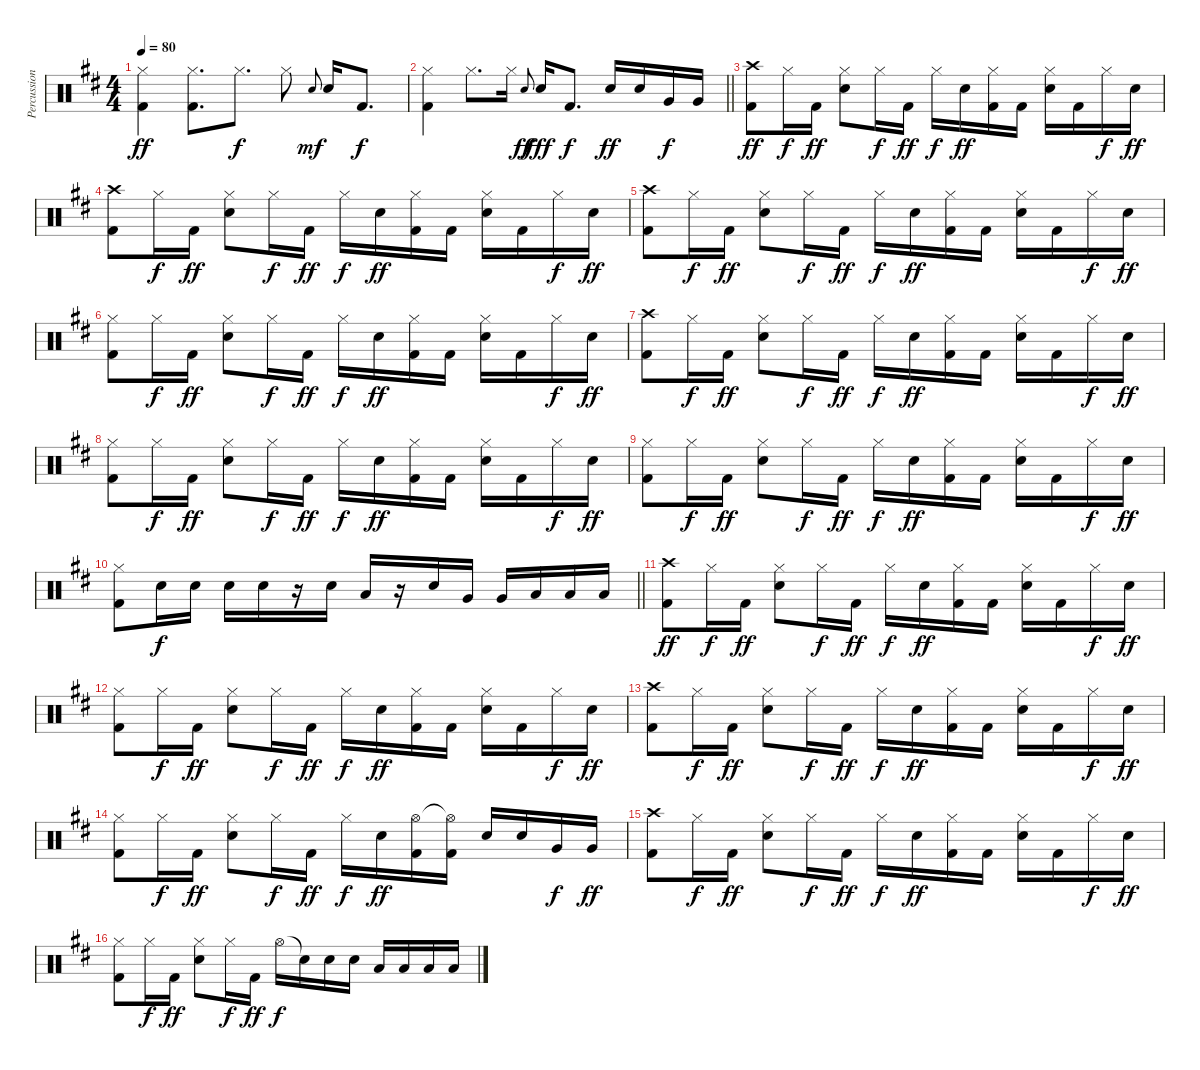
\track ("Percussion" "Percussion") {instrument percussion}
\staff {score}
\articulation defaults
\ts (4 4)
\tempo 80
\clef neutral
\ks bminor
("Hi-Hat (closed)" "Kick (hit) 2").4{dy ff} ("Hi-Hat (closed)" "Kick (hit) 2").8{d} "Hi-Hat (closed)".8{d dy f} "Hi-Hat (closed)".8 "Electric Snare (hit)".8{gr onbeat dy mf} "Electric Snare (hit)".16 "Kick (hit) 2".8{d dy f} |
\barLineRight lightlight
("Hi-Hat (closed)" "Kick (hit) 2").4 "Hi-Hat (closed)".8{d} "Hi-Hat (closed)".16 "Electric Snare (hit)".8{gr onbeat dy ff} "Electric Snare (hit)".16{dy fff} "Kick (hit) 2".8{d dy f} "Snare (hit) 2".16{dy ff} "Snare (hit) 2".16 "Very Low Tom (hit)".16{dy f} "Very Low Tom (hit)".16 |
("Crash high (hit)" "Kick (hit) 2").8{dy ff} "Hi-Hat (closed)".16{dy f} "Kick (hit) 2".16{dy ff} ("Hi-Hat (closed)" "Snare (hit) 2").8 "Hi-Hat (closed)".16{dy f} "Kick (hit) 2".16{dy ff} "Hi-Hat (closed)".16{dy f} "Snare (hit) 2".16{dy ff} ("Hi-Hat (closed)" "Kick (hit) 2").16 "Kick (hit) 2".16 ("Hi-Hat (closed)" "Snare (hit) 2").16 "Kick (hit) 2".16 "Hi-Hat (closed)".16{dy f} "Snare (hit) 2".16{dy ff} |
("Crash high (hit)" "Kick (hit) 2").8 "Hi-Hat (closed)".16{dy f} "Kick (hit) 2".16{dy ff} ("Hi-Hat (closed)" "Snare (hit) 2").8 "Hi-Hat (closed)".16{dy f} "Kick (hit) 2".16{dy ff} "Hi-Hat (closed)".16{dy f} "Snare (hit) 2".16{dy ff} ("Hi-Hat (closed)" "Kick (hit) 2").16 "Kick (hit) 2".16 ("Hi-Hat (closed)" "Snare (hit) 2").16 "Kick (hit) 2".16 "Hi-Hat (closed)".16{dy f} "Snare (hit) 2".16{dy ff} |
("Crash high (hit)" "Kick (hit) 2").8 "Hi-Hat (closed)".16{dy f} "Kick (hit) 2".16{dy ff} ("Hi-Hat (closed)" "Snare (hit) 2").8 "Hi-Hat (closed)".16{dy f} "Kick (hit) 2".16{dy ff} "Hi-Hat (closed)".16{dy f} "Snare (hit) 2".16{dy ff} ("Hi-Hat (closed)" "Kick (hit) 2").16 "Kick (hit) 2".16 ("Hi-Hat (closed)" "Snare (hit) 2").16 "Kick (hit) 2".16 "Hi-Hat (closed)".16{dy f} "Snare (hit) 2".16{dy ff} |
("Hi-Hat (closed)" "Kick (hit) 2").8 "Hi-Hat (closed)".16{dy f} "Kick (hit) 2".16{dy ff} ("Hi-Hat (closed)" "Snare (hit) 2").8 "Hi-Hat (closed)".16{dy f} "Kick (hit) 2".16{dy ff} "Hi-Hat (closed)".16{dy f} "Snare (hit) 2".16{dy ff} ("Hi-Hat (closed)" "Kick (hit) 2").16 "Kick (hit) 2".16 ("Hi-Hat (closed)" "Snare (hit) 2").16 "Kick (hit) 2".16 "Hi-Hat (closed)".16{dy f} "Snare (hit) 2".16{dy ff} |
("Crash high (hit)" "Kick (hit) 2").8 "Hi-Hat (closed)".16{dy f} "Kick (hit) 2".16{dy ff} ("Hi-Hat (closed)" "Snare (hit) 2").8 "Hi-Hat (closed)".16{dy f} "Kick (hit) 2".16{dy ff} "Hi-Hat (closed)".16{dy f} "Snare (hit) 2".16{dy ff} ("Hi-Hat (closed)" "Kick (hit) 2").16 "Kick (hit) 2".16 ("Hi-Hat (closed)" "Snare (hit) 2").16 "Kick (hit) 2".16 "Hi-Hat (closed)".16{dy f} "Snare (hit) 2".16{dy ff} |
("Hi-Hat (closed)" "Kick (hit) 2").8 "Hi-Hat (closed)".16{dy f} "Kick (hit) 2".16{dy ff} ("Hi-Hat (closed)" "Snare (hit) 2").8 "Hi-Hat (closed)".16{dy f} "Kick (hit) 2".16{dy ff} "Hi-Hat (closed)".16{dy f} "Snare (hit) 2".16{dy ff} ("Hi-Hat (closed)" "Kick (hit) 2").16 "Kick (hit) 2".16 ("Hi-Hat (closed)" "Snare (hit) 2").16 "Kick (hit) 2".16 "Hi-Hat (closed)".16{dy f} "Snare (hit) 2".16{dy ff} |
("Hi-Hat (closed)" "Kick (hit) 2").8 "Hi-Hat (closed)".16{dy f} "Kick (hit) 2".16{dy ff} ("Hi-Hat (closed)" "Snare (hit) 2").8 "Hi-Hat (closed)".16{dy f} "Kick (hit) 2".16{dy ff} "Hi-Hat (closed)".16{dy f} "Snare (hit) 2".16{dy ff} ("Hi-Hat (closed)" "Kick (hit) 2").16 "Kick (hit) 2".16 ("Hi-Hat (closed)" "Snare (hit) 2").16 "Kick (hit) 2".16 "Hi-Hat (closed)".16{dy f} "Snare (hit) 2".16{dy ff} |
\barLineRight lightlight
("Hi-Hat (closed)" "Kick (hit) 2").8 "Snare (hit) 2".16{dy f} "Snare (hit) 2".16 "Snare (hit) 2".16 "Snare (hit) 2".16 r.16 "Snare (hit) 2".16 "Low Tom (hit)".16 r.16 "Snare (hit) 2".16 "Very Low Tom (hit)".16 "Very Low Tom (hit)".16 "Low Floor Tom (hit)".16 "Low Floor Tom (hit)".16 "Low Floor Tom (hit)".16 |
("Crash high (hit)" "Kick (hit) 2").8{dy ff volume 16} "Hi-Hat (closed)".16{dy f} "Kick (hit) 2".16{dy ff} ("Hi-Hat (closed)" "Snare (hit) 2").8 "Hi-Hat (closed)".16{dy f} "Kick (hit) 2".16{dy ff} "Hi-Hat (closed)".16{dy f} "Snare (hit) 2".16{dy ff} ("Hi-Hat (closed)" "Kick (hit) 2").16 "Kick (hit) 2".16 ("Hi-Hat (closed)" "Snare (hit) 2").16 "Kick (hit) 2".16 "Hi-Hat (closed)".16{dy f} "Snare (hit) 2".16{dy ff} |
("Hi-Hat (closed)" "Kick (hit) 2").8 "Hi-Hat (closed)".16{dy f} "Kick (hit) 2".16{dy ff} ("Hi-Hat (closed)" "Snare (hit) 2").8 "Hi-Hat (closed)".16{dy f} "Kick (hit) 2".16{dy ff} "Hi-Hat (closed)".16{dy f} "Snare (hit) 2".16{dy ff} ("Hi-Hat (closed)" "Kick (hit) 2").16 "Kick (hit) 2".16 ("Hi-Hat (closed)" "Snare (hit) 2").16 "Kick (hit) 2".16 "Hi-Hat (closed)".16{dy f} "Snare (hit) 2".16{dy ff} |
("Crash high (hit)" "Kick (hit) 2").8 "Hi-Hat (closed)".16{dy f} "Kick (hit) 2".16{dy ff} ("Hi-Hat (closed)" "Snare (hit) 2").8 "Hi-Hat (closed)".16{dy f} "Kick (hit) 2".16{dy ff} "Hi-Hat (closed)".16{dy f} "Snare (hit) 2".16{dy ff} ("Hi-Hat (closed)" "Kick (hit) 2").16 "Kick (hit) 2".16 ("Hi-Hat (closed)" "Snare (hit) 2").16 "Kick (hit) 2".16 "Hi-Hat (closed)".16{dy f} "Snare (hit) 2".16{dy ff} |
("Hi-Hat (closed)" "Kick (hit) 2").8 "Hi-Hat (closed)".16{dy f} "Kick (hit) 2".16{dy ff} ("Hi-Hat (closed)" "Snare (hit) 2").8 "Hi-Hat (closed)".16{dy f} "Kick (hit) 2".16{dy ff} "Hi-Hat (closed)".16{dy f} "Snare (hit) 2".16{dy ff} ("Hi-Hat (open)" "Kick (hit) 2").16 ("Hi-Hat (open)"{t} "Kick (hit) 2").16 "Snare (hit) 2".16 "Snare (hit) 2".16 "Very Low Tom (hit)".16{dy f} "Very Low Tom (hit)".16{dy ff} |
("Crash high (hit)" "Kick (hit) 2").8 "Hi-Hat (closed)".16{dy f} "Kick (hit) 2".16{dy ff} ("Hi-Hat (closed)" "Snare (hit) 2").8 "Hi-Hat (closed)".16{dy f} "Kick (hit) 2".16{dy ff} "Hi-Hat (closed)".16{dy f} "Snare (hit) 2".16{dy ff} ("Hi-Hat (closed)" "Kick (hit) 2").16 "Kick (hit) 2".16 ("Hi-Hat (closed)" "Snare (hit) 2").16 "Kick (hit) 2".16 "Hi-Hat (closed)".16{dy f} "Snare (hit) 2".16{dy ff} |
("Hi-Hat (closed)" "Kick (hit) 2").8 "Hi-Hat (closed)".16{dy f} "Kick (hit) 2".16{dy ff} ("Hi-Hat (closed)" "Snare (hit) 2").8 "Hi-Hat (closed)".16{dy f} "Kick (hit) 2".16{dy ff} "Hi-Hat (open)".16{dy f} "Snare (hit)"{t}.16 "Snare (hit) 2".16 "Snare (hit) 2".16 "Low Tom (hit)".16 "Low Tom (hit)".16 "Low Floor Tom (hit)".16 "Low Floor Tom (hit)".16
